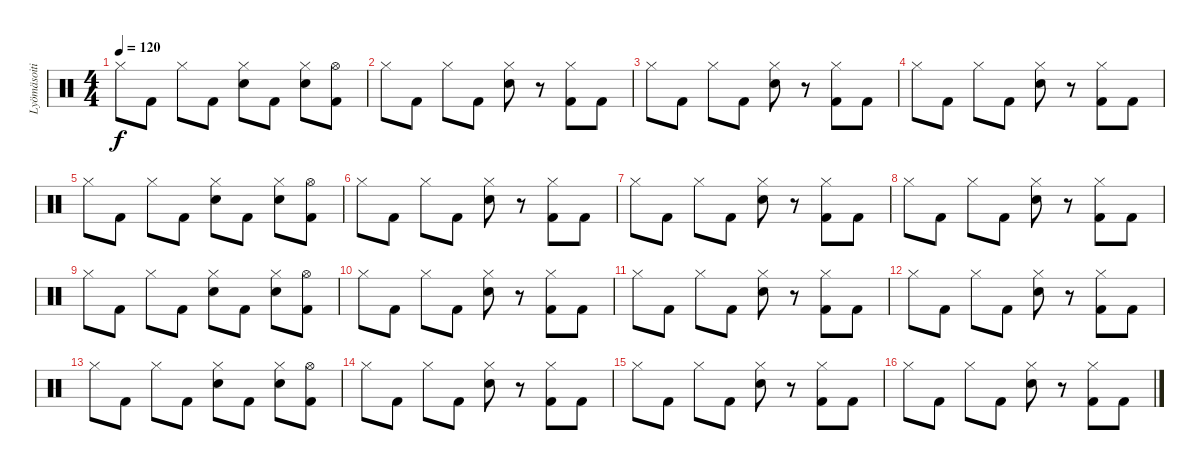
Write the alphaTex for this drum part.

\track ("Lyömäsoitin" "Lyömäsoiti") {instrument percussion}
\staff {score}
\articulation defaults
\ts (4 4)
\tempo 120
\clef neutral
\ks c "Hi-Hat (closed)".8{dy f} "Kick (hit) 2".8 "Hi-Hat (closed)".8 "Kick (hit) 2".8
("Hi-Hat (closed)" "Snare (hit) 2").8 "Kick (hit) 2".8 ("Hi-Hat (closed)" "Snare (hit) 2").8 ("Hi-Hat (open)" "Kick (hit) 2").8 |
"Hi-Hat (closed)".8 "Kick (hit) 2".8 "Hi-Hat (closed)".8 "Kick (hit) 2".8 ("Hi-Hat (closed)" "Snare (hit) 2").8 r.8 ("Hi-Hat (closed)" "Kick (hit) 2").8 "Kick (hit) 2".8 |
"Hi-Hat (closed)".8 "Kick (hit) 2".8 "Hi-Hat (closed)".8 "Kick (hit) 2".8 ("Hi-Hat (closed)" "Snare (hit) 2").8 r.8 ("Hi-Hat (closed)" "Kick (hit) 2").8 "Kick (hit) 2".8 |
"Hi-Hat (closed)".8 "Kick (hit) 2".8 "Hi-Hat (closed)".8 "Kick (hit) 2".8 ("Hi-Hat (closed)" "Snare (hit) 2").8 r.8 ("Hi-Hat (closed)" "Kick (hit) 2").8 "Kick (hit) 2".8 |
"Hi-Hat (closed)".8 "Kick (hit) 2".8 "Hi-Hat (closed)".8 "Kick (hit) 2".8 ("Hi-Hat (closed)" "Snare (hit) 2").8 "Kick (hit) 2".8 ("Hi-Hat (closed)" "Snare (hit) 2").8 ("Hi-Hat (open)" "Kick (hit) 2").8 |
"Hi-Hat (closed)".8 "Kick (hit) 2".8 "Hi-Hat (closed)".8 "Kick (hit) 2".8 ("Hi-Hat (closed)" "Snare (hit) 2").8 r.8 ("Hi-Hat (closed)" "Kick (hit) 2").8 "Kick (hit) 2".8 |
"Hi-Hat (closed)".8 "Kick (hit) 2".8 "Hi-Hat (closed)".8 "Kick (hit) 2".8 ("Hi-Hat (closed)" "Snare (hit) 2").8 r.8 ("Hi-Hat (closed)" "Kick (hit) 2").8 "Kick (hit) 2".8 |
"Hi-Hat (closed)".8 "Kick (hit) 2".8 "Hi-Hat (closed)".8 "Kick (hit) 2".8 ("Hi-Hat (closed)" "Snare (hit) 2").8 r.8 ("Hi-Hat (closed)" "Kick (hit) 2").8 "Kick (hit) 2".8 |
"Hi-Hat (closed)".8 "Kick (hit) 2".8 "Hi-Hat (closed)".8 "Kick (hit) 2".8 ("Hi-Hat (closed)" "Snare (hit) 2").8 "Kick (hit) 2".8 ("Hi-Hat (closed)" "Snare (hit) 2").8 ("Hi-Hat (open)" "Kick (hit) 2").8 |
"Hi-Hat (closed)".8 "Kick (hit) 2".8 "Hi-Hat (closed)".8 "Kick (hit) 2".8 ("Hi-Hat (closed)" "Snare (hit) 2").8 r.8 ("Hi-Hat (closed)" "Kick (hit) 2").8 "Kick (hit) 2".8 |
"Hi-Hat (closed)".8 "Kick (hit) 2".8 "Hi-Hat (closed)".8 "Kick (hit) 2".8 ("Hi-Hat (closed)" "Snare (hit) 2").8 r.8 ("Hi-Hat (closed)" "Kick (hit) 2").8 "Kick (hit) 2".8 |
"Hi-Hat (closed)".8 "Kick (hit) 2".8 "Hi-Hat (closed)".8 "Kick (hit) 2".8 ("Hi-Hat (closed)" "Snare (hit) 2").8 r.8 ("Hi-Hat (closed)" "Kick (hit) 2").8 "Kick (hit) 2".8 |
"Hi-Hat (closed)".8 "Kick (hit) 2".8 "Hi-Hat (closed)".8 "Kick (hit) 2".8 ("Hi-Hat (closed)" "Snare (hit) 2").8 "Kick (hit) 2".8 ("Hi-Hat (closed)" "Snare (hit) 2").8 ("Hi-Hat (open)" "Kick (hit) 2").8 |
"Hi-Hat (closed)".8 "Kick (hit) 2".8 "Hi-Hat (closed)".8 "Kick (hit) 2".8 ("Hi-Hat (closed)" "Snare (hit) 2").8 r.8 ("Hi-Hat (closed)" "Kick (hit) 2").8 "Kick (hit) 2".8 |
"Hi-Hat (closed)".8 "Kick (hit) 2".8 "Hi-Hat (closed)".8 "Kick (hit) 2".8 ("Hi-Hat (closed)" "Snare (hit) 2").8 r.8 ("Hi-Hat (closed)" "Kick (hit) 2").8 "Kick (hit) 2".8 |
"Hi-Hat (closed)".8 "Kick (hit) 2".8 "Hi-Hat (closed)".8 "Kick (hit) 2".8 ("Hi-Hat (closed)" "Snare (hit) 2").8 r.8 ("Hi-Hat (closed)" "Kick (hit) 2").8 "Kick (hit) 2".8
